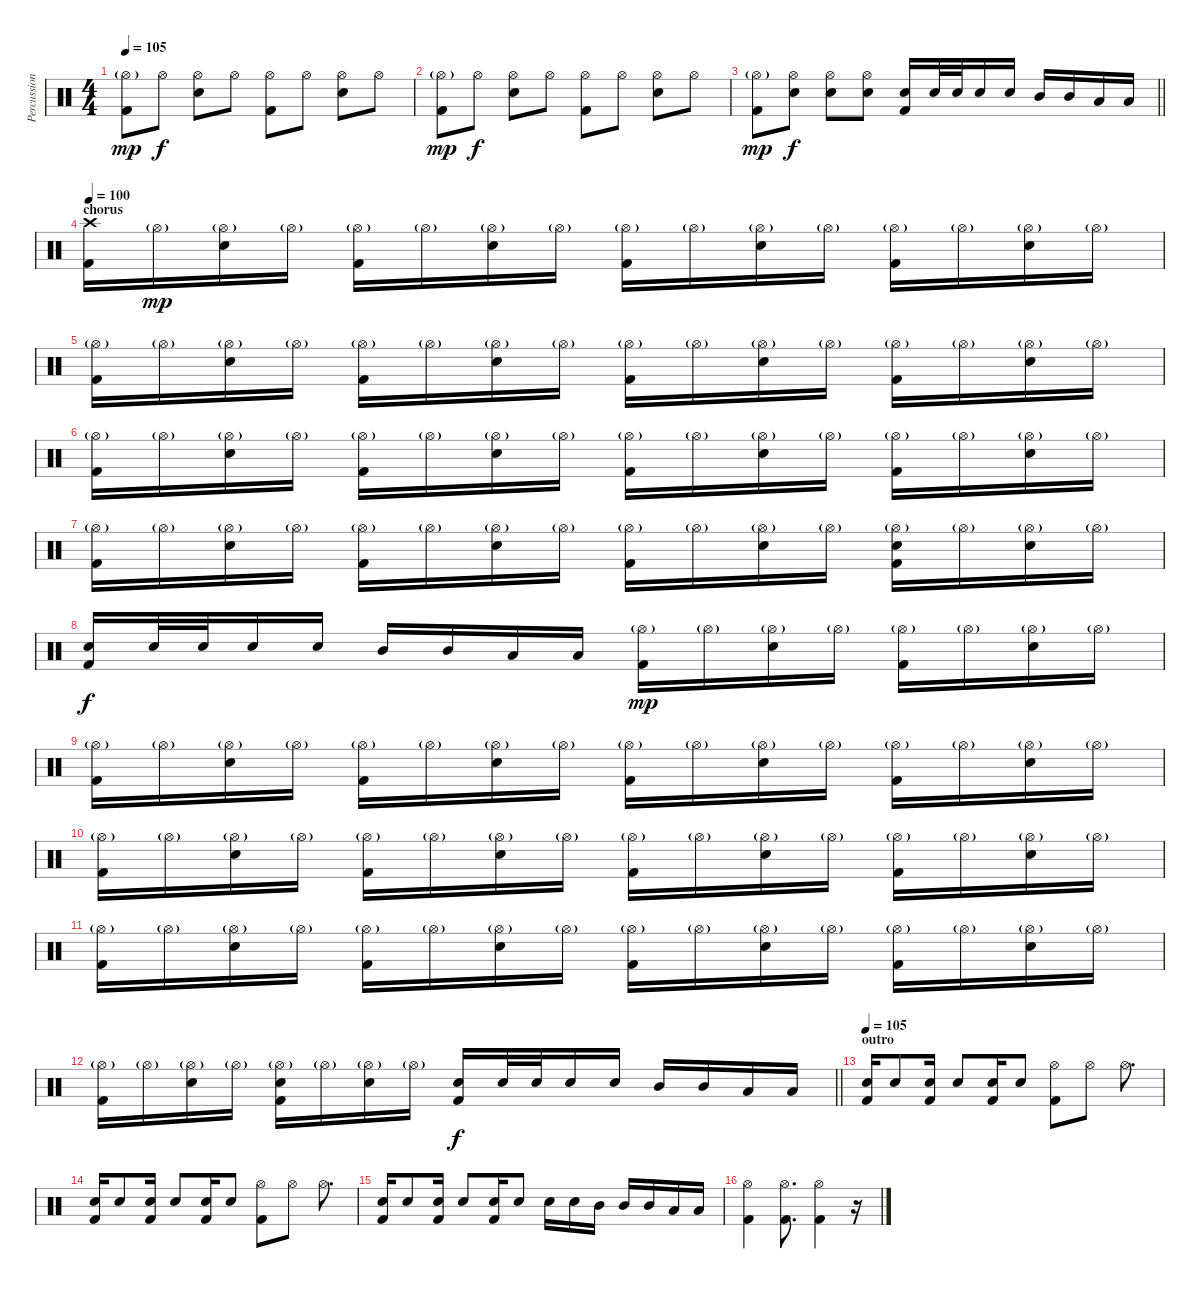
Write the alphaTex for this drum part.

\track ("Percussion" "Percussion") {instrument percussion}
\staff {score}
\articulation defaults
\ts (4 4)
\tempo 105
\clef neutral
\ks c
("Hi-Hat (open)"{g} "Kick (hit) 2").8{dy mp} "Hi-Hat (open)".8{dy f} ("Hi-Hat (open)" "Electric Snare (hit)").8 "Hi-Hat (open)".8 ("Hi-Hat (open)" "Kick (hit) 2").8 "Hi-Hat (open)".8 ("Hi-Hat (open)" "Electric Snare (hit)").8 "Hi-Hat (open)".8 |
("Hi-Hat (open)"{g} "Kick (hit) 2").8{dy mp} "Hi-Hat (open)".8{dy f} ("Hi-Hat (open)" "Electric Snare (hit)").8 "Hi-Hat (open)".8 ("Hi-Hat (open)" "Kick (hit) 2").8 "Hi-Hat (open)".8 ("Hi-Hat (open)" "Electric Snare (hit)").8 "Hi-Hat (open)".8 |
\barLineRight lightlight
("Hi-Hat (open)"{g} "Kick (hit) 2").8{dy mp} ("Hi-Hat (open)" "Electric Snare (hit)").8{dy f} ("Hi-Hat (open)" "Electric Snare (hit)").8 ("Hi-Hat (open)" "Electric Snare (hit)").8 ("Electric Snare (hit)" "Kick (hit) 2").16 "Electric Snare (hit)".32 "Electric Snare (hit)".32 "Electric Snare (hit)".16 "Electric Snare (hit)".16 "Mid Tom (hit)".16 "Mid Tom (hit)".16 "Low Tom (hit)".16 "Low Tom (hit)".16 |
\section ("" "chorus")
\tempo 100
("Crash high (hit)" "Kick (hit) 2").16 "Hi-Hat (open)"{g}.16{dy mp} ("Hi-Hat (open)"{g} "Electric Snare (hit)").16 "Hi-Hat (open)"{g}.16 ("Hi-Hat (open)"{g} "Kick (hit) 2").16 "Hi-Hat (open)"{g}.16 ("Hi-Hat (open)"{g} "Electric Snare (hit)").16 "Hi-Hat (open)"{g}.16 ("Hi-Hat (open)"{g} "Kick (hit) 2").16 "Hi-Hat (open)"{g}.16 ("Hi-Hat (open)"{g} "Electric Snare (hit)").16 "Hi-Hat (open)"{g}.16 ("Hi-Hat (open)"{g} "Kick (hit) 2").16 "Hi-Hat (open)"{g}.16 ("Hi-Hat (open)"{g} "Electric Snare (hit)").16 "Hi-Hat (open)"{g}.16 |
("Hi-Hat (open)"{g} "Kick (hit) 2").16 "Hi-Hat (open)"{g}.16 ("Hi-Hat (open)"{g} "Electric Snare (hit)").16 "Hi-Hat (open)"{g}.16 ("Hi-Hat (open)"{g} "Kick (hit) 2").16 "Hi-Hat (open)"{g}.16 ("Hi-Hat (open)"{g} "Electric Snare (hit)").16 "Hi-Hat (open)"{g}.16 ("Hi-Hat (open)"{g} "Kick (hit) 2").16 "Hi-Hat (open)"{g}.16 ("Hi-Hat (open)"{g} "Electric Snare (hit)").16 "Hi-Hat (open)"{g}.16 ("Hi-Hat (open)"{g} "Kick (hit) 2").16 "Hi-Hat (open)"{g}.16 ("Hi-Hat (open)"{g} "Electric Snare (hit)").16 "Hi-Hat (open)"{g}.16 |
("Hi-Hat (open)"{g} "Kick (hit) 2").16 "Hi-Hat (open)"{g}.16 ("Hi-Hat (open)"{g} "Electric Snare (hit)").16 "Hi-Hat (open)"{g}.16 ("Hi-Hat (open)"{g} "Kick (hit) 2").16 "Hi-Hat (open)"{g}.16 ("Hi-Hat (open)"{g} "Electric Snare (hit)").16 "Hi-Hat (open)"{g}.16 ("Hi-Hat (open)"{g} "Kick (hit) 2").16 "Hi-Hat (open)"{g}.16 ("Hi-Hat (open)"{g} "Electric Snare (hit)").16 "Hi-Hat (open)"{g}.16 ("Hi-Hat (open)"{g} "Kick (hit) 2").16 "Hi-Hat (open)"{g}.16 ("Hi-Hat (open)"{g} "Electric Snare (hit)").16 "Hi-Hat (open)"{g}.16 |
("Hi-Hat (open)"{g} "Kick (hit) 2").16 "Hi-Hat (open)"{g}.16 ("Hi-Hat (open)"{g} "Electric Snare (hit)").16 "Hi-Hat (open)"{g}.16 ("Hi-Hat (open)"{g} "Kick (hit) 2").16 "Hi-Hat (open)"{g}.16 ("Hi-Hat (open)"{g} "Electric Snare (hit)").16 "Hi-Hat (open)"{g}.16 ("Hi-Hat (open)"{g} "Kick (hit) 2").16 "Hi-Hat (open)"{g}.16 ("Hi-Hat (open)"{g} "Electric Snare (hit)").16 "Hi-Hat (open)"{g}.16 ("Hi-Hat (open)"{g} "Electric Snare (hit)" "Kick (hit) 2").16 "Hi-Hat (open)"{g}.16 ("Hi-Hat (open)"{g} "Electric Snare (hit)").16 "Hi-Hat (open)"{g}.16 |
("Electric Snare (hit)" "Kick (hit) 2").16{dy f} "Electric Snare (hit)".32 "Electric Snare (hit)".32 "Electric Snare (hit)".16 "Electric Snare (hit)".16 "Mid Tom (hit)".16 "Mid Tom (hit)".16 "Low Tom (hit)".16 "Low Tom (hit)".16 ("Hi-Hat (open)"{g} "Kick (hit) 2").16{dy mp} "Hi-Hat (open)"{g}.16 ("Hi-Hat (open)"{g} "Electric Snare (hit)").16 "Hi-Hat (open)"{g}.16 ("Hi-Hat (open)"{g} "Kick (hit) 2").16 "Hi-Hat (open)"{g}.16 ("Hi-Hat (open)"{g} "Electric Snare (hit)").16 "Hi-Hat (open)"{g}.16 |
("Hi-Hat (open)"{g} "Kick (hit) 2").16 "Hi-Hat (open)"{g}.16 ("Hi-Hat (open)"{g} "Electric Snare (hit)").16 "Hi-Hat (open)"{g}.16 ("Hi-Hat (open)"{g} "Kick (hit) 2").16 "Hi-Hat (open)"{g}.16 ("Hi-Hat (open)"{g} "Electric Snare (hit)").16 "Hi-Hat (open)"{g}.16 ("Hi-Hat (open)"{g} "Kick (hit) 2").16 "Hi-Hat (open)"{g}.16 ("Hi-Hat (open)"{g} "Electric Snare (hit)").16 "Hi-Hat (open)"{g}.16 ("Hi-Hat (open)"{g} "Kick (hit) 2").16 "Hi-Hat (open)"{g}.16 ("Hi-Hat (open)"{g} "Electric Snare (hit)").16 "Hi-Hat (open)"{g}.16 |
("Hi-Hat (open)"{g} "Kick (hit) 2").16 "Hi-Hat (open)"{g}.16 ("Hi-Hat (open)"{g} "Electric Snare (hit)").16 "Hi-Hat (open)"{g}.16 ("Hi-Hat (open)"{g} "Kick (hit) 2").16 "Hi-Hat (open)"{g}.16 ("Hi-Hat (open)"{g} "Electric Snare (hit)").16 "Hi-Hat (open)"{g}.16 ("Hi-Hat (open)"{g} "Kick (hit) 2").16 "Hi-Hat (open)"{g}.16 ("Hi-Hat (open)"{g} "Electric Snare (hit)").16 "Hi-Hat (open)"{g}.16 ("Hi-Hat (open)"{g} "Kick (hit) 2").16 "Hi-Hat (open)"{g}.16 ("Hi-Hat (open)"{g} "Electric Snare (hit)").16 "Hi-Hat (open)"{g}.16 |
("Hi-Hat (open)"{g} "Kick (hit) 2").16 "Hi-Hat (open)"{g}.16 ("Hi-Hat (open)"{g} "Electric Snare (hit)").16 "Hi-Hat (open)"{g}.16 ("Hi-Hat (open)"{g} "Kick (hit) 2").16 "Hi-Hat (open)"{g}.16 ("Hi-Hat (open)"{g} "Electric Snare (hit)").16 "Hi-Hat (open)"{g}.16 ("Hi-Hat (open)"{g} "Kick (hit) 2").16 "Hi-Hat (open)"{g}.16 ("Hi-Hat (open)"{g} "Electric Snare (hit)").16 "Hi-Hat (open)"{g}.16 ("Hi-Hat (open)"{g} "Kick (hit) 2").16 "Hi-Hat (open)"{g}.16 ("Hi-Hat (open)"{g} "Electric Snare (hit)").16 "Hi-Hat (open)"{g}.16 |
\barLineRight lightlight
("Hi-Hat (open)"{g} "Kick (hit) 2").16 "Hi-Hat (open)"{g}.16 ("Hi-Hat (open)"{g} "Electric Snare (hit)").16 "Hi-Hat (open)"{g}.16 ("Hi-Hat (open)"{g} "Electric Snare (hit)" "Kick (hit) 2").16 "Hi-Hat (open)"{g}.16 ("Hi-Hat (open)"{g} "Electric Snare (hit)").16 "Hi-Hat (open)"{g}.16 ("Electric Snare (hit)" "Kick (hit) 2").16{dy f} "Electric Snare (hit)".32 "Electric Snare (hit)".32 "Electric Snare (hit)".16 "Electric Snare (hit)".16 "Mid Tom (hit)".16 "Mid Tom (hit)".16 "Low Tom (hit)".16 "Low Tom (hit)".16 |
\section ("" "outro")
\tempo 105
("Electric Snare (hit)" "Kick (hit) 2").16 "Electric Snare (hit)".8 ("Electric Snare (hit)" "Kick (hit) 2").16 "Electric Snare (hit)".8 ("Electric Snare (hit)" "Kick (hit) 2").16 "Electric Snare (hit)".8 ("Hi-Hat (open)" "Kick (hit) 2").8 "Hi-Hat (open)".8 "Hi-Hat (open)".8{d} |
("Electric Snare (hit)" "Kick (hit) 2").16 "Electric Snare (hit)".8 ("Electric Snare (hit)" "Kick (hit) 2").16 "Electric Snare (hit)".8 ("Electric Snare (hit)" "Kick (hit) 2").16 "Electric Snare (hit)".8 ("Hi-Hat (open)" "Kick (hit) 2").8 "Hi-Hat (open)".8 "Hi-Hat (open)".8{d} |
("Electric Snare (hit)" "Kick (hit) 2").16 "Electric Snare (hit)".8 ("Electric Snare (hit)" "Kick (hit) 2").16 "Electric Snare (hit)".8 ("Electric Snare (hit)" "Kick (hit) 2").16 "Electric Snare (hit)".8 "Electric Snare (hit)".16 "Electric Snare (hit)".16 "Mid Tom (hit)".16 "Mid Tom (hit)".16 "Mid Tom (hit)".16 "Low Tom (hit)".16 "Low Tom (hit)".16 |
("Hi-Hat (open)" "Kick (hit) 2").4 ("Hi-Hat (open)" "Kick (hit) 2").8{d} ("Hi-Hat (open)" "Kick (hit) 2").4 r.16
